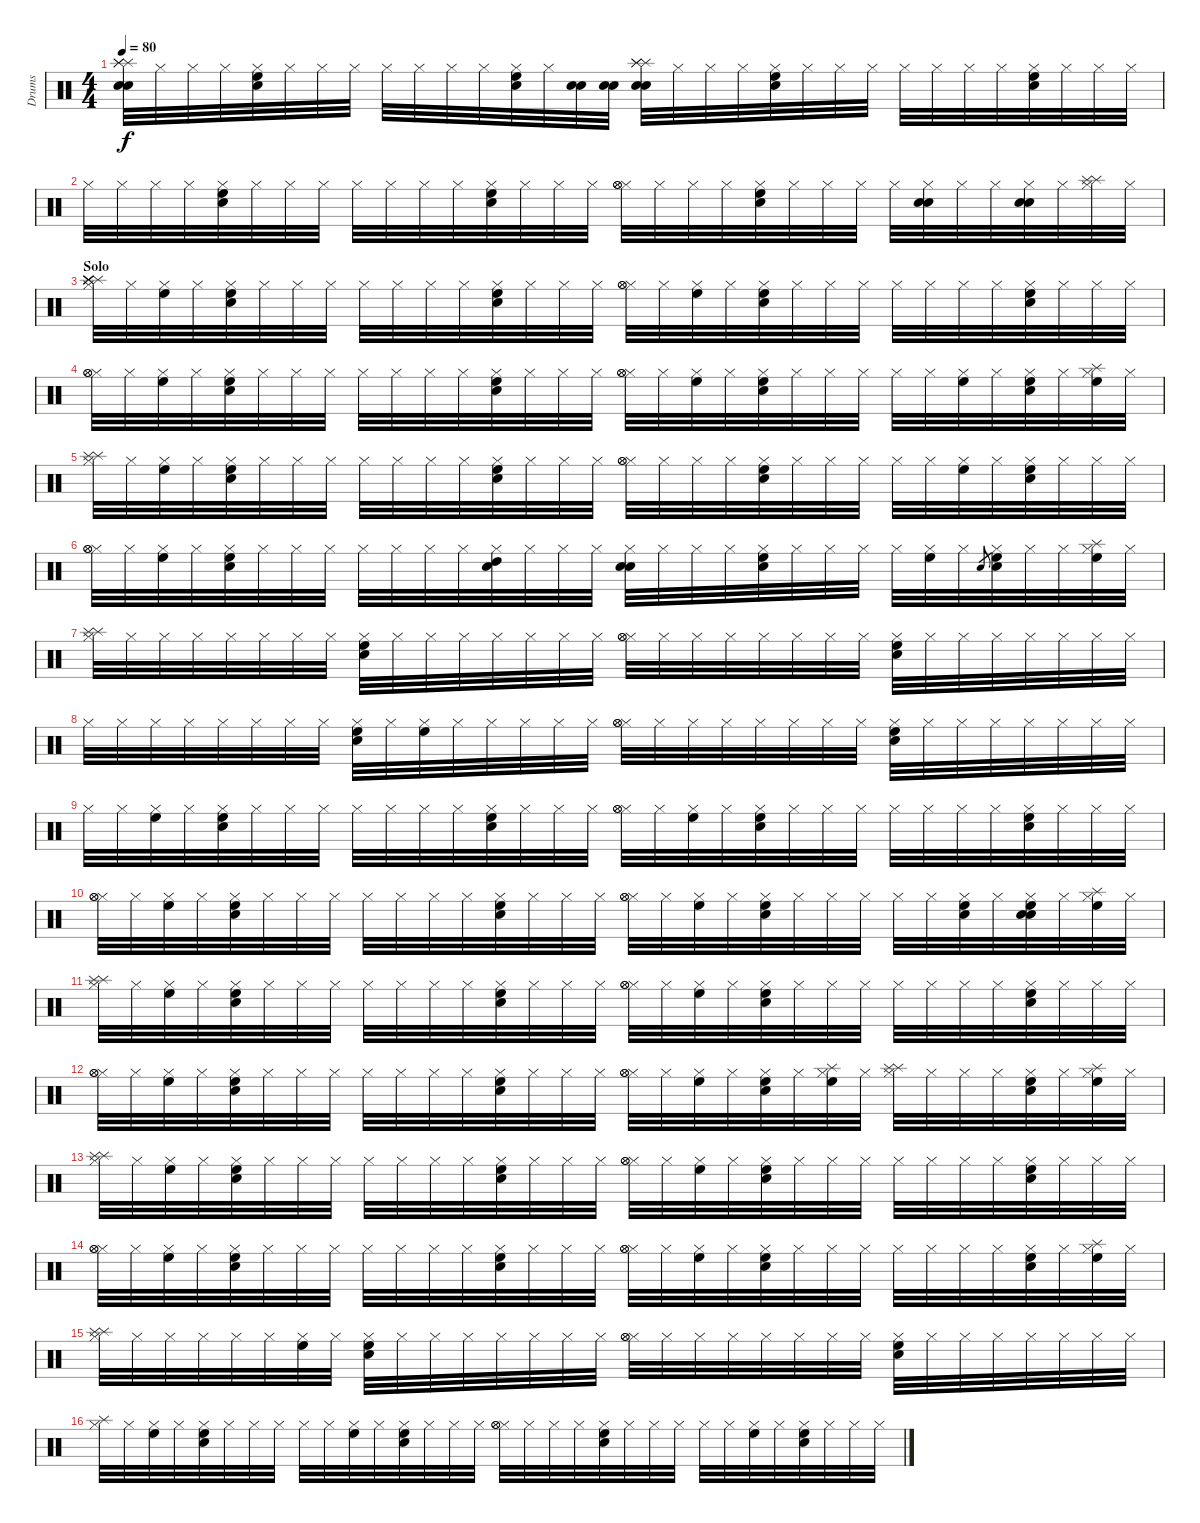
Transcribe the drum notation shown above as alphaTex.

\track ("Drums" "Drums") {instrument percussion}
\staff {score}
\articulation defaults
\ts (4 4)
\tempo 80
\clef neutral
\ks c
("Snare (hit) 2" "Snare (hit) 2" "Splash (hit)" "Splash (hit)" "Splash (hit)").32{dy f} "Hi-Hat (closed)".32 "Hi-Hat (closed)".32 "Hi-Hat (closed)".32 ("Hi-Hat (closed)" "Snare (hit) 2" "High Floor Tom (hit)").32 "Hi-Hat (closed)".32 "Hi-Hat (closed)".32 "Hi-Hat (closed)".32 "Hi-Hat (closed)".32 "Hi-Hat (closed)".32 "Hi-Hat (closed)".32 "Hi-Hat (closed)".32 ("Hi-Hat (closed)" "Snare (hit) 2" "High Floor Tom (hit)").32 "Hi-Hat (closed)".32 ("Snare (hit) 2" "Snare (hit) 2").32 ("Snare (hit) 2" "Snare (hit) 2").32 ("Snare (hit) 2" "Snare (hit) 2" "Splash (hit)" "Splash (hit)" "Splash (hit)").32 "Hi-Hat (closed)".32 "Hi-Hat (closed)".32 "Hi-Hat (closed)".32 ("Hi-Hat (closed)" "Snare (hit) 2" "High Floor Tom (hit)").32 "Hi-Hat (closed)".32 "Hi-Hat (closed)".32 "Hi-Hat (closed)".32 "Hi-Hat (closed)".32 "Hi-Hat (closed)".32 "Hi-Hat (closed)".32 "Hi-Hat (closed)".32 ("Hi-Hat (closed)" "Snare (hit) 2" "High Floor Tom (hit)").32 "Hi-Hat (closed)".32 "Hi-Hat (closed)".32 "Hi-Hat (closed)".32 |
"Hi-Hat (closed)".32 "Hi-Hat (closed)".32 "Hi-Hat (closed)".32 "Hi-Hat (closed)".32 ("Hi-Hat (closed)" "Snare (hit) 2" "High Floor Tom (hit)").32 "Hi-Hat (closed)".32 "Hi-Hat (closed)".32 "Hi-Hat (closed)".32 "Hi-Hat (closed)".32 "Hi-Hat (closed)".32 "Hi-Hat (closed)".32 "Hi-Hat (closed)".32 ("Hi-Hat (closed)" "Snare (hit) 2" "High Floor Tom (hit)").32 "Hi-Hat (closed)".32 "Hi-Hat (closed)".32 "Hi-Hat (closed)".32 ("Hi-Hat (closed)" "Hi-Hat (open)" "Hi-Hat (open)").32 "Hi-Hat (closed)".32 "Hi-Hat (closed)".32 "Hi-Hat (closed)".32 ("Hi-Hat (closed)" "Snare (hit) 2" "High Floor Tom (hit)").32 "Hi-Hat (closed)".32 "Hi-Hat (closed)".32 "Hi-Hat (closed)".32 "Hi-Hat (closed)".32 ("Hi-Hat (closed)" "Snare (hit) 2" "Snare (hit) 2").32 "Hi-Hat (closed)".32 "Hi-Hat (closed)".32 ("Hi-Hat (closed)" "Snare (hit) 2" "Snare (hit) 2").32 "Hi-Hat (closed)".32 ("Hi-Hat (closed)" "Splash (hit)" "Splash (hit)").32 "Hi-Hat (closed)".32 |
\section ("" "Solo")
("Hi-Hat (closed)" "Splash (hit)" "Splash (hit)" "Splash (hit)" "Splash (hit)" "Splash (hit)").32 "Hi-Hat (closed)".32 ("Hi-Hat (closed)" "High Floor Tom (hit)").32 "Hi-Hat (closed)".32 ("Hi-Hat (closed)" "Snare (hit) 2" "High Floor Tom (hit)").32 "Hi-Hat (closed)".32 "Hi-Hat (closed)".32 "Hi-Hat (closed)".32 "Hi-Hat (closed)".32 "Hi-Hat (closed)".32 "Hi-Hat (closed)".32 "Hi-Hat (closed)".32 ("Hi-Hat (closed)" "Snare (hit) 2" "High Floor Tom (hit)").32 "Hi-Hat (closed)".32 "Hi-Hat (closed)".32 "Hi-Hat (closed)".32 ("Hi-Hat (closed)" "Hi-Hat (open)" "Hi-Hat (open)").32 "Hi-Hat (closed)".32 ("Hi-Hat (closed)" "High Floor Tom (hit)").32 "Hi-Hat (closed)".32 ("Hi-Hat (closed)" "Snare (hit) 2" "High Floor Tom (hit)").32 "Hi-Hat (closed)".32 "Hi-Hat (closed)".32 "Hi-Hat (closed)".32 "Hi-Hat (closed)".32 "Hi-Hat (closed)".32 "Hi-Hat (closed)".32 "Hi-Hat (closed)".32 ("Hi-Hat (closed)" "Snare (hit) 2" "High Floor Tom (hit)").32 "Hi-Hat (closed)".32 "Hi-Hat (closed)".32 "Hi-Hat (closed)".32 |
("Hi-Hat (closed)" "Hi-Hat (open)" "Hi-Hat (open)").32 "Hi-Hat (closed)".32 ("Hi-Hat (closed)" "High Floor Tom (hit)").32 "Hi-Hat (closed)".32 ("Hi-Hat (closed)" "Snare (hit) 2" "High Floor Tom (hit)").32 "Hi-Hat (closed)".32 "Hi-Hat (closed)".32 "Hi-Hat (closed)".32 "Hi-Hat (closed)".32 "Hi-Hat (closed)".32 "Hi-Hat (closed)".32 "Hi-Hat (closed)".32 ("Hi-Hat (closed)" "Snare (hit) 2" "High Floor Tom (hit)").32 "Hi-Hat (closed)".32 "Hi-Hat (closed)".32 "Hi-Hat (closed)".32 ("Hi-Hat (closed)" "Hi-Hat (open)" "Hi-Hat (open)").32 "Hi-Hat (closed)".32 ("Hi-Hat (closed)" "High Floor Tom (hit)").32 "Hi-Hat (closed)".32 ("Hi-Hat (closed)" "Snare (hit) 2" "High Floor Tom (hit)").32 "Hi-Hat (closed)".32 "Hi-Hat (closed)".32 "Hi-Hat (closed)".32 "Hi-Hat (closed)".32 "Hi-Hat (closed)".32 ("Hi-Hat (closed)" "High Floor Tom (hit)").32 "Hi-Hat (closed)".32 ("Hi-Hat (closed)" "Snare (hit) 2" "High Floor Tom (hit)").32 "Hi-Hat (closed)".32 ("Hi-Hat (closed)" "Splash (hit)" "High Floor Tom (hit)").32 "Hi-Hat (closed)".32 |
("Hi-Hat (closed)" "Splash (hit)" "Splash (hit)").32 "Hi-Hat (closed)".32 ("Hi-Hat (closed)" "High Floor Tom (hit)").32 "Hi-Hat (closed)".32 ("Hi-Hat (closed)" "Snare (hit) 2" "High Floor Tom (hit)").32 "Hi-Hat (closed)".32 "Hi-Hat (closed)".32 "Hi-Hat (closed)".32 "Hi-Hat (closed)".32 "Hi-Hat (closed)".32 "Hi-Hat (closed)".32 "Hi-Hat (closed)".32 ("Hi-Hat (closed)" "Snare (hit) 2" "High Floor Tom (hit)").32 "Hi-Hat (closed)".32 "Hi-Hat (closed)".32 "Hi-Hat (closed)".32 ("Hi-Hat (closed)" "Hi-Hat (open)" "Hi-Hat (open)").32 "Hi-Hat (closed)".32 "Hi-Hat (closed)".32 "Hi-Hat (closed)".32 ("Hi-Hat (closed)" "Snare (hit) 2" "High Floor Tom (hit)").32 "Hi-Hat (closed)".32 "Hi-Hat (closed)".32 "Hi-Hat (closed)".32 "Hi-Hat (closed)".32 "Hi-Hat (closed)".32 ("Hi-Hat (closed)" "High Floor Tom (hit)").32 "Hi-Hat (closed)".32 ("Hi-Hat (closed)" "Snare (hit) 2" "High Floor Tom (hit)").32 "Hi-Hat (closed)".32 "Hi-Hat (closed)".32 "Hi-Hat (closed)".32 |
("Hi-Hat (closed)" "Hi-Hat (open)" "Hi-Hat (open)").32 "Hi-Hat (closed)".32 ("Hi-Hat (closed)" "High Floor Tom (hit)").32 "Hi-Hat (closed)".32 ("Hi-Hat (closed)" "Snare (hit) 2" "High Floor Tom (hit)").32 "Hi-Hat (closed)".32 "Hi-Hat (closed)".32 "Hi-Hat (closed)".32 "Hi-Hat (closed)".32 "Hi-Hat (closed)".32 "Hi-Hat (closed)".32 "Hi-Hat (closed)".32 ("Hi-Hat (closed)" "Snare (hit) 2" "High Tom (hit)").32 "Hi-Hat (closed)".32 "Hi-Hat (closed)".32 "Hi-Hat (closed)".32 ("Hi-Hat (closed)" "Snare (hit) 2" "Snare (hit) 2").32 "Hi-Hat (closed)".32 "Hi-Hat (closed)".32 "Hi-Hat (closed)".32 ("Hi-Hat (closed)" "Snare (hit) 2" "High Floor Tom (hit)").32 "Hi-Hat (closed)".32 "Hi-Hat (closed)".32 "Hi-Hat (closed)".32 "Hi-Hat (closed)".32 ("Hi-Hat (closed)" "High Floor Tom (hit)").32 "Hi-Hat (closed)".32 "Snare (hit) 2".8{gr} ("Hi-Hat (closed)" "Snare (hit) 2" "High Floor Tom (hit)").32 "Hi-Hat (closed)".32 "Hi-Hat (closed)".32 ("Hi-Hat (closed)" "Splash (hit)" "High Floor Tom (hit)").32 "Hi-Hat (closed)".32 |
("Hi-Hat (closed)" "Splash (hit)" "Splash (hit)").32 "Hi-Hat (closed)".32 "Hi-Hat (closed)".32 "Hi-Hat (closed)".32 "Hi-Hat (closed)".32 "Hi-Hat (closed)".32 "Hi-Hat (closed)".32 "Hi-Hat (closed)".32 ("Hi-Hat (closed)" "Snare (hit) 2" "High Floor Tom (hit)").32 "Hi-Hat (closed)".32 "Hi-Hat (closed)".32 "Hi-Hat (closed)".32 "Hi-Hat (closed)".32 "Hi-Hat (closed)".32 "Hi-Hat (closed)".32 "Hi-Hat (closed)".32 ("Hi-Hat (closed)" "Hi-Hat (open)" "Hi-Hat (open)").32 "Hi-Hat (closed)".32 "Hi-Hat (closed)".32 "Hi-Hat (closed)".32 "Hi-Hat (closed)".32 "Hi-Hat (closed)".32 "Hi-Hat (closed)".32 "Hi-Hat (closed)".32 ("Hi-Hat (closed)" "Snare (hit) 2" "High Floor Tom (hit)").32 "Hi-Hat (closed)".32 "Hi-Hat (closed)".32 "Hi-Hat (closed)".32 "Hi-Hat (closed)".32 "Hi-Hat (closed)".32 "Hi-Hat (closed)".32 "Hi-Hat (closed)".32 |
"Hi-Hat (closed)".32 "Hi-Hat (closed)".32 "Hi-Hat (closed)".32 "Hi-Hat (closed)".32 "Hi-Hat (closed)".32 "Hi-Hat (closed)".32 "Hi-Hat (closed)".32 "Hi-Hat (closed)".32 ("Hi-Hat (closed)" "Snare (hit) 2" "High Floor Tom (hit)").32 "Hi-Hat (closed)".32 ("Hi-Hat (closed)" "High Floor Tom (hit)").32 "Hi-Hat (closed)".32 "Hi-Hat (closed)".32 "Hi-Hat (closed)".32 "Hi-Hat (closed)".32 "Hi-Hat (closed)".32 ("Hi-Hat (closed)" "Hi-Hat (open)" "Hi-Hat (open)").32 "Hi-Hat (closed)".32 "Hi-Hat (closed)".32 "Hi-Hat (closed)".32 "Hi-Hat (closed)".32 "Hi-Hat (closed)".32 "Hi-Hat (closed)".32 "Hi-Hat (closed)".32 ("Hi-Hat (closed)" "Snare (hit) 2" "High Floor Tom (hit)").32 "Hi-Hat (closed)".32 "Hi-Hat (closed)".32 "Hi-Hat (closed)".32 "Hi-Hat (closed)".32 "Hi-Hat (closed)".32 "Hi-Hat (closed)".32 "Hi-Hat (closed)".32 |
"Hi-Hat (closed)".32 "Hi-Hat (closed)".32 ("Hi-Hat (closed)" "High Floor Tom (hit)").32 "Hi-Hat (closed)".32 ("Hi-Hat (closed)" "Snare (hit) 2" "High Floor Tom (hit)").32 "Hi-Hat (closed)".32 "Hi-Hat (closed)".32 "Hi-Hat (closed)".32 "Hi-Hat (closed)".32 "Hi-Hat (closed)".32 "Hi-Hat (closed)".32 "Hi-Hat (closed)".32 ("Hi-Hat (closed)" "Snare (hit) 2" "High Floor Tom (hit)").32 "Hi-Hat (closed)".32 "Hi-Hat (closed)".32 "Hi-Hat (closed)".32 ("Hi-Hat (closed)" "Hi-Hat (open)" "Hi-Hat (open)").32 "Hi-Hat (closed)".32 ("Hi-Hat (closed)" "High Floor Tom (hit)").32 "Hi-Hat (closed)".32 ("Hi-Hat (closed)" "Snare (hit) 2" "High Floor Tom (hit)").32 "Hi-Hat (closed)".32 "Hi-Hat (closed)".32 "Hi-Hat (closed)".32 "Hi-Hat (closed)".32 "Hi-Hat (closed)".32 "Hi-Hat (closed)".32 "Hi-Hat (closed)".32 ("Hi-Hat (closed)" "Snare (hit) 2" "High Floor Tom (hit)").32 "Hi-Hat (closed)".32 "Hi-Hat (closed)".32 "Hi-Hat (closed)".32 |
("Hi-Hat (closed)" "Hi-Hat (open)" "Hi-Hat (open)").32 "Hi-Hat (closed)".32 ("Hi-Hat (closed)" "High Floor Tom (hit)").32 "Hi-Hat (closed)".32 ("Hi-Hat (closed)" "Snare (hit) 2" "High Floor Tom (hit)").32 "Hi-Hat (closed)".32 "Hi-Hat (closed)".32 "Hi-Hat (closed)".32 "Hi-Hat (closed)".32 "Hi-Hat (closed)".32 "Hi-Hat (closed)".32 "Hi-Hat (closed)".32 ("Hi-Hat (closed)" "Snare (hit) 2" "High Floor Tom (hit)").32 "Hi-Hat (closed)".32 "Hi-Hat (closed)".32 "Hi-Hat (closed)".32 ("Hi-Hat (closed)" "Hi-Hat (open)" "Hi-Hat (open)").32 "Hi-Hat (closed)".32 ("Hi-Hat (closed)" "High Floor Tom (hit)").32 "Hi-Hat (closed)".32 ("Hi-Hat (closed)" "Snare (hit) 2" "High Floor Tom (hit)").32 "Hi-Hat (closed)".32 "Hi-Hat (closed)".32 "Hi-Hat (closed)".32 "Hi-Hat (closed)".32 "Hi-Hat (closed)".32 ("Hi-Hat (closed)" "Snare (hit) 2" "High Floor Tom (hit)").32 "Hi-Hat (closed)".32 ("Hi-Hat (closed)" "Snare (hit) 2" "Snare (hit) 2" "High Floor Tom (hit)").32 "Hi-Hat (closed)".32 ("Hi-Hat (closed)" "Splash (hit)" "High Floor Tom (hit)").32 "Hi-Hat (closed)".32 |
("Hi-Hat (closed)" "Splash (hit)" "Splash (hit)").32 "Hi-Hat (closed)".32 ("Hi-Hat (closed)" "High Floor Tom (hit)").32 "Hi-Hat (closed)".32 ("Hi-Hat (closed)" "Snare (hit) 2" "High Floor Tom (hit)").32 "Hi-Hat (closed)".32 "Hi-Hat (closed)".32 "Hi-Hat (closed)".32 "Hi-Hat (closed)".32 "Hi-Hat (closed)".32 "Hi-Hat (closed)".32 "Hi-Hat (closed)".32 ("Hi-Hat (closed)" "Snare (hit) 2" "High Floor Tom (hit)").32 "Hi-Hat (closed)".32 "Hi-Hat (closed)".32 "Hi-Hat (closed)".32 ("Hi-Hat (closed)" "Hi-Hat (open)" "Hi-Hat (open)").32 "Hi-Hat (closed)".32 ("Hi-Hat (closed)" "High Floor Tom (hit)").32 "Hi-Hat (closed)".32 ("Hi-Hat (closed)" "Snare (hit) 2" "High Floor Tom (hit)").32 "Hi-Hat (closed)".32 "Hi-Hat (closed)".32 "Hi-Hat (closed)".32 "Hi-Hat (closed)".32 "Hi-Hat (closed)".32 "Hi-Hat (closed)".32 "Hi-Hat (closed)".32 ("Hi-Hat (closed)" "Snare (hit) 2" "High Floor Tom (hit)").32 "Hi-Hat (closed)".32 "Hi-Hat (closed)".32 "Hi-Hat (closed)".32 |
("Hi-Hat (closed)" "Hi-Hat (open)" "Hi-Hat (open)").32 "Hi-Hat (closed)".32 ("Hi-Hat (closed)" "High Floor Tom (hit)").32 "Hi-Hat (closed)".32 ("Hi-Hat (closed)" "Snare (hit) 2" "High Floor Tom (hit)").32 "Hi-Hat (closed)".32 "Hi-Hat (closed)".32 "Hi-Hat (closed)".32 "Hi-Hat (closed)".32 "Hi-Hat (closed)".32 "Hi-Hat (closed)".32 "Hi-Hat (closed)".32 ("Hi-Hat (closed)" "Snare (hit) 2" "High Floor Tom (hit)").32 "Hi-Hat (closed)".32 "Hi-Hat (closed)".32 "Hi-Hat (closed)".32 ("Hi-Hat (closed)" "Hi-Hat (open)" "Hi-Hat (open)").32 "Hi-Hat (closed)".32 ("Hi-Hat (closed)" "High Floor Tom (hit)").32 "Hi-Hat (closed)".32 ("Hi-Hat (closed)" "Snare (hit) 2" "High Floor Tom (hit)").32 "Hi-Hat (closed)".32 ("Hi-Hat (closed)" "Splash (hit)" "High Floor Tom (hit)").32 "Hi-Hat (closed)".32 ("Hi-Hat (closed)" "Splash (hit)" "Splash (hit)").32 "Hi-Hat (closed)".32 "Hi-Hat (closed)".32 "Hi-Hat (closed)".32 ("Hi-Hat (closed)" "Snare (hit) 2" "High Floor Tom (hit)").32 "Hi-Hat (closed)".32 ("Hi-Hat (closed)" "Splash (hit)" "High Floor Tom (hit)").32 "Hi-Hat (closed)".32 |
("Hi-Hat (closed)" "Splash (hit)" "Splash (hit)").32 "Hi-Hat (closed)".32 ("Hi-Hat (closed)" "High Floor Tom (hit)").32 "Hi-Hat (closed)".32 ("Hi-Hat (closed)" "Snare (hit) 2" "High Floor Tom (hit)").32 "Hi-Hat (closed)".32 "Hi-Hat (closed)".32 "Hi-Hat (closed)".32 "Hi-Hat (closed)".32 "Hi-Hat (closed)".32 "Hi-Hat (closed)".32 "Hi-Hat (closed)".32 ("Hi-Hat (closed)" "Snare (hit) 2" "High Floor Tom (hit)").32 "Hi-Hat (closed)".32 "Hi-Hat (closed)".32 "Hi-Hat (closed)".32 ("Hi-Hat (closed)" "Hi-Hat (open)" "Hi-Hat (open)").32 "Hi-Hat (closed)".32 ("Hi-Hat (closed)" "High Floor Tom (hit)").32 "Hi-Hat (closed)".32 ("Hi-Hat (closed)" "Snare (hit) 2" "High Floor Tom (hit)").32 "Hi-Hat (closed)".32 "Hi-Hat (closed)".32 "Hi-Hat (closed)".32 "Hi-Hat (closed)".32 "Hi-Hat (closed)".32 "Hi-Hat (closed)".32 "Hi-Hat (closed)".32 ("Hi-Hat (closed)" "Snare (hit) 2" "High Floor Tom (hit)").32 "Hi-Hat (closed)".32 "Hi-Hat (closed)".32 "Hi-Hat (closed)".32 |
("Hi-Hat (closed)" "Hi-Hat (open)" "Hi-Hat (open)").32 "Hi-Hat (closed)".32 ("Hi-Hat (closed)" "High Floor Tom (hit)").32 "Hi-Hat (closed)".32 ("Hi-Hat (closed)" "Snare (hit) 2" "High Floor Tom (hit)").32 "Hi-Hat (closed)".32 "Hi-Hat (closed)".32 "Hi-Hat (closed)".32 "Hi-Hat (closed)".32 "Hi-Hat (closed)".32 "Hi-Hat (closed)".32 "Hi-Hat (closed)".32 ("Hi-Hat (closed)" "Snare (hit) 2" "High Floor Tom (hit)").32 "Hi-Hat (closed)".32 "Hi-Hat (closed)".32 "Hi-Hat (closed)".32 ("Hi-Hat (closed)" "Hi-Hat (open)" "Hi-Hat (open)").32 "Hi-Hat (closed)".32 ("Hi-Hat (closed)" "High Floor Tom (hit)").32 "Hi-Hat (closed)".32 ("Hi-Hat (closed)" "Snare (hit) 2" "High Floor Tom (hit)").32 "Hi-Hat (closed)".32 "Hi-Hat (closed)".32 "Hi-Hat (closed)".32 "Hi-Hat (closed)".32 "Hi-Hat (closed)".32 "Hi-Hat (closed)".32 "Hi-Hat (closed)".32 ("Hi-Hat (closed)" "Snare (hit) 2" "High Floor Tom (hit)").32 "Hi-Hat (closed)".32 ("Hi-Hat (closed)" "Splash (hit)" "High Floor Tom (hit)").32 "Hi-Hat (closed)".32 |
("Hi-Hat (closed)" "Splash (hit)" "Splash (hit)").32 "Hi-Hat (closed)".32 "Hi-Hat (closed)".32 "Hi-Hat (closed)".32 "Hi-Hat (closed)".32 "Hi-Hat (closed)".32 ("Hi-Hat (closed)" "High Floor Tom (hit)").32 "Hi-Hat (closed)".32 ("Hi-Hat (closed)" "Snare (hit) 2" "High Floor Tom (hit)").32 "Hi-Hat (closed)".32 "Hi-Hat (closed)".32 "Hi-Hat (closed)".32 "Hi-Hat (closed)".32 "Hi-Hat (closed)".32 "Hi-Hat (closed)".32 "Hi-Hat (closed)".32 ("Hi-Hat (closed)" "Hi-Hat (open)" "Hi-Hat (open)").32 "Hi-Hat (closed)".32 "Hi-Hat (closed)".32 "Hi-Hat (closed)".32 "Hi-Hat (closed)".32 "Hi-Hat (closed)".32 "Hi-Hat (closed)".32 "Hi-Hat (closed)".32 ("Hi-Hat (closed)" "Snare (hit) 2" "High Floor Tom (hit)").32 "Hi-Hat (closed)".32 "Hi-Hat (closed)".32 "Hi-Hat (closed)".32 "Hi-Hat (closed)".32 "Hi-Hat (closed)".32 "Hi-Hat (closed)".32 "Hi-Hat (closed)".32 |
("Hi-Hat (closed)" "Splash (hit)").32 "Hi-Hat (closed)".32 ("Hi-Hat (closed)" "High Floor Tom (hit)").32 "Hi-Hat (closed)".32 ("Hi-Hat (closed)" "Snare (hit) 2" "High Floor Tom (hit)").32 "Hi-Hat (closed)".32 "Hi-Hat (closed)".32 "Hi-Hat (closed)".32 "Hi-Hat (closed)".32 "Hi-Hat (closed)".32 ("Hi-Hat (closed)" "High Floor Tom (hit)").32 "Hi-Hat (closed)".32 ("Hi-Hat (closed)" "Snare (hit) 2" "High Floor Tom (hit)").32 "Hi-Hat (closed)".32 "Hi-Hat (closed)".32 "Hi-Hat (closed)".32 ("Hi-Hat (closed)" "Hi-Hat (open)" "Hi-Hat (open)").32 "Hi-Hat (closed)".32 "Hi-Hat (closed)".32 "Hi-Hat (closed)".32 ("Hi-Hat (closed)" "Snare (hit) 2" "High Floor Tom (hit)").32 "Hi-Hat (closed)".32 "Hi-Hat (closed)".32 "Hi-Hat (closed)".32 "Hi-Hat (closed)".32 "Hi-Hat (closed)".32 ("Hi-Hat (closed)" "High Floor Tom (hit)").32 "Hi-Hat (closed)".32 ("Hi-Hat (closed)" "Snare (hit) 2" "High Floor Tom (hit)").32 "Hi-Hat (closed)".32 "Hi-Hat (closed)".32 "Hi-Hat (closed)".32
